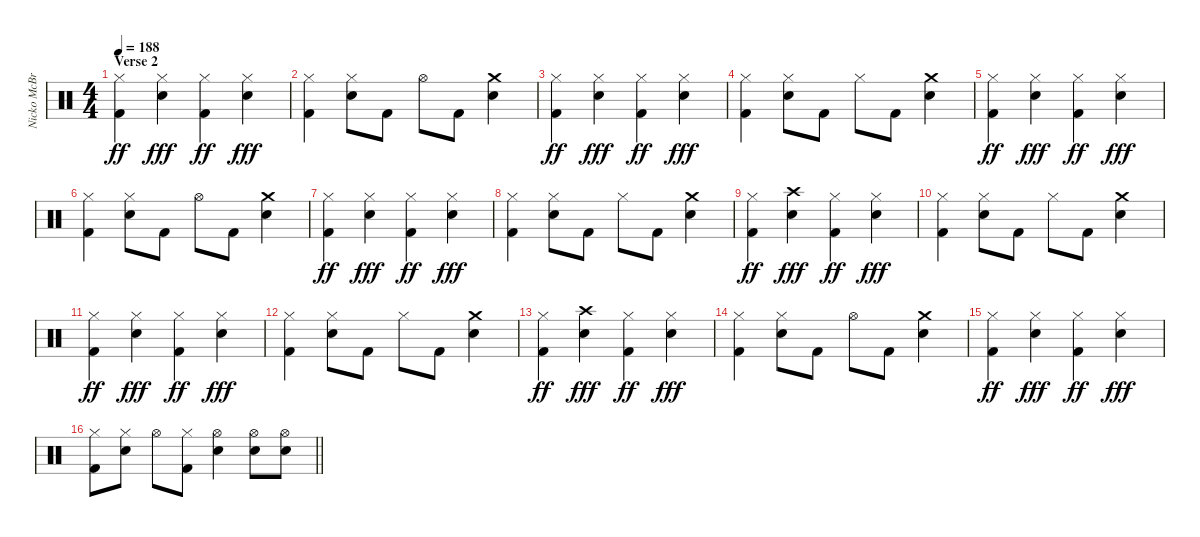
\track ("Nicko McBrain" "Nicko McBr") {instrument percussion}
\staff {score}
\articulation defaults
\ts (4 4)
\section ("" "Verse 2")
\tempo 188
\clef neutral
\ks c
("Hi-Hat (closed)" "Kick (hit) 2").4{dy ff} ("Hi-Hat (closed)" "Electric Snare (hit)").4{dy fff} ("Hi-Hat (closed)" "Kick (hit) 2").4{dy ff} ("Hi-Hat (closed)" "Electric Snare (hit)").4{dy fff} |
("Hi-Hat (closed)" "Kick (hit) 2").4 ("Hi-Hat (closed)" "Electric Snare (hit)").8 "Kick (hit) 2".8 "Hi-Hat (open)".8 "Kick (hit) 2".8 ("Crash medium (hit)" "Electric Snare (hit)").4 |
("Hi-Hat (closed)" "Kick (hit) 2").4{dy ff} ("Hi-Hat (closed)" "Electric Snare (hit)").4{dy fff} ("Hi-Hat (closed)" "Kick (hit) 2").4{dy ff} ("Hi-Hat (closed)" "Electric Snare (hit)").4{dy fff} |
("Hi-Hat (closed)" "Kick (hit) 2").4 ("Hi-Hat (closed)" "Electric Snare (hit)").8 "Kick (hit) 2".8 "Hi-Hat (closed)".8 "Kick (hit) 2".8 ("Crash medium (hit)" "Electric Snare (hit)").4 |
("Hi-Hat (closed)" "Kick (hit) 2").4{dy ff} ("Hi-Hat (closed)" "Electric Snare (hit)").4{dy fff} ("Hi-Hat (closed)" "Kick (hit) 2").4{dy ff} ("Hi-Hat (closed)" "Electric Snare (hit)").4{dy fff} |
("Hi-Hat (closed)" "Kick (hit) 2").4 ("Hi-Hat (closed)" "Electric Snare (hit)").8 "Kick (hit) 2".8 "Hi-Hat (open)".8 "Kick (hit) 2".8 ("Crash medium (hit)" "Electric Snare (hit)").4 |
("Hi-Hat (closed)" "Kick (hit) 2").4{dy ff} ("Hi-Hat (closed)" "Electric Snare (hit)").4{dy fff} ("Hi-Hat (closed)" "Kick (hit) 2").4{dy ff} ("Hi-Hat (closed)" "Electric Snare (hit)").4{dy fff} |
("Hi-Hat (closed)" "Kick (hit) 2").4 ("Hi-Hat (closed)" "Electric Snare (hit)").8 "Kick (hit) 2".8 "Hi-Hat (closed)".8 "Kick (hit) 2".8 ("Crash medium (hit)" "Electric Snare (hit)").4 |
("Hi-Hat (closed)" "Kick (hit) 2").4{dy ff} ("Crash high (hit)" "Electric Snare (hit)").4{dy fff} ("Hi-Hat (closed)" "Kick (hit) 2").4{dy ff} ("Hi-Hat (closed)" "Electric Snare (hit)").4{dy fff} |
("Hi-Hat (closed)" "Kick (hit) 2").4 ("Hi-Hat (closed)" "Electric Snare (hit)").8 "Kick (hit) 2".8 "Hi-Hat (closed)".8 "Kick (hit) 2".8 ("Crash medium (hit)" "Electric Snare (hit)").4 |
("Hi-Hat (closed)" "Kick (hit) 2").4{dy ff} ("Hi-Hat (closed)" "Electric Snare (hit)").4{dy fff} ("Hi-Hat (closed)" "Kick (hit) 2").4{dy ff} ("Hi-Hat (closed)" "Electric Snare (hit)").4{dy fff} |
("Hi-Hat (closed)" "Kick (hit) 2").4 ("Hi-Hat (closed)" "Electric Snare (hit)").8 "Kick (hit) 2".8 "Hi-Hat (closed)".8 "Kick (hit) 2".8 ("Crash medium (hit)" "Electric Snare (hit)").4 |
("Hi-Hat (closed)" "Kick (hit) 2").4{dy ff} ("Crash high (hit)" "Electric Snare (hit)").4{dy fff} ("Hi-Hat (closed)" "Kick (hit) 2").4{dy ff} ("Hi-Hat (closed)" "Electric Snare (hit)").4{dy fff} |
("Hi-Hat (closed)" "Kick (hit) 2").4 ("Hi-Hat (closed)" "Electric Snare (hit)").8 "Kick (hit) 2".8 "Hi-Hat (open)".8 "Kick (hit) 2".8 ("Crash medium (hit)" "Electric Snare (hit)").4 |
("Hi-Hat (closed)" "Kick (hit) 2").4{dy ff} ("Hi-Hat (closed)" "Electric Snare (hit)").4{dy fff} ("Hi-Hat (closed)" "Kick (hit) 2").4{dy ff} ("Hi-Hat (closed)" "Electric Snare (hit)").4{dy fff} |
\barLineRight lightlight
("Hi-Hat (closed)" "Kick (hit) 2").8 ("Hi-Hat (closed)" "Electric Snare (hit)").8 "Hi-Hat (open)".8 ("Hi-Hat (closed)" "Kick (hit) 2").8 ("Hi-Hat (open)" "Electric Snare (hit)").4 ("Hi-Hat (open)" "Electric Snare (hit)").8 ("Hi-Hat (open)" "Electric Snare (hit)").8
